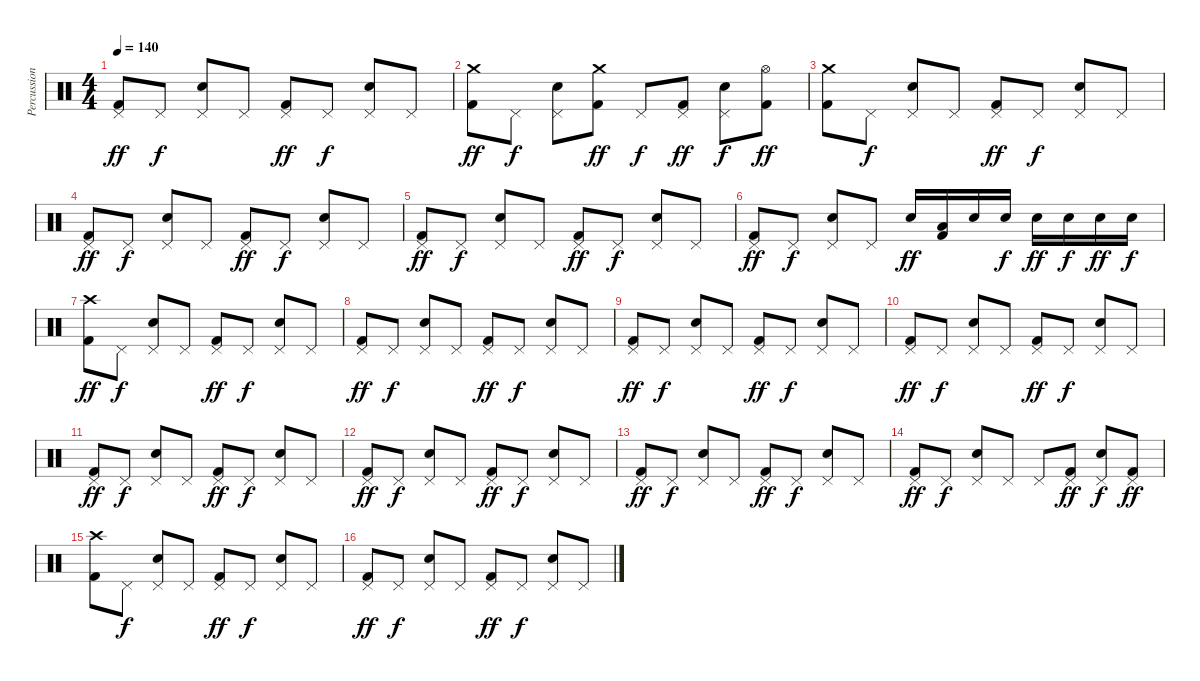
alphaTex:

\track ("Percussion" "Percussion") {instrument percussion}
\staff {score}
\articulation defaults
\ts (4 4)
\tempo 140
\clef neutral
\ks c
("Pedal Hi-Hat (hit)" "Kick (hit) 2").8{dy ff} "Pedal Hi-Hat (hit)".8{dy f} ("Pedal Hi-Hat (hit)" "Snare (hit) 2").8 "Pedal Hi-Hat (hit)".8 ("Pedal Hi-Hat (hit)" "Kick (hit) 2").8{dy ff} "Pedal Hi-Hat (hit)".8{dy f} ("Pedal Hi-Hat (hit)" "Snare (hit) 2").8 "Pedal Hi-Hat (hit)".8 |
("Crash medium (hit)" "Kick (hit) 2").8{dy ff} "Pedal Hi-Hat (hit)".8{dy f} ("Pedal Hi-Hat (hit)" "Snare (hit) 2").8 ("Crash medium (hit)" "Kick (hit) 2").8{dy ff} "Pedal Hi-Hat (hit)".8{dy f} ("Pedal Hi-Hat (hit)" "Kick (hit) 2").8{dy ff} ("Pedal Hi-Hat (hit)" "Snare (hit) 2").8{dy f} ("Hi-Hat (open)" "Kick (hit) 2").8{dy ff} |
("Crash medium (hit)" "Kick (hit) 2").8 "Pedal Hi-Hat (hit)".8{dy f} ("Pedal Hi-Hat (hit)" "Snare (hit) 2").8 "Pedal Hi-Hat (hit)".8 ("Pedal Hi-Hat (hit)" "Kick (hit) 2").8{dy ff} "Pedal Hi-Hat (hit)".8{dy f} ("Pedal Hi-Hat (hit)" "Snare (hit) 2").8 "Pedal Hi-Hat (hit)".8 |
("Pedal Hi-Hat (hit)" "Kick (hit) 2").8{dy ff} "Pedal Hi-Hat (hit)".8{dy f} ("Pedal Hi-Hat (hit)" "Snare (hit) 2").8 "Pedal Hi-Hat (hit)".8 ("Pedal Hi-Hat (hit)" "Kick (hit) 2").8{dy ff} "Pedal Hi-Hat (hit)".8{dy f} ("Pedal Hi-Hat (hit)" "Snare (hit) 2").8 "Pedal Hi-Hat (hit)".8 |
("Pedal Hi-Hat (hit)" "Kick (hit) 2").8{dy ff} "Pedal Hi-Hat (hit)".8{dy f} ("Pedal Hi-Hat (hit)" "Snare (hit) 2").8 "Pedal Hi-Hat (hit)".8 ("Pedal Hi-Hat (hit)" "Kick (hit) 2").8{dy ff} "Pedal Hi-Hat (hit)".8{dy f} ("Pedal Hi-Hat (hit)" "Snare (hit) 2").8 "Pedal Hi-Hat (hit)".8 |
("Pedal Hi-Hat (hit)" "Kick (hit) 2").8{dy ff} "Pedal Hi-Hat (hit)".8{dy f} ("Pedal Hi-Hat (hit)" "Snare (hit) 2").8 "Pedal Hi-Hat (hit)".8 "Snare (hit) 2".16{dy ff} ("Low Tom (hit)" "Kick (hit) 2").16 "Snare (hit) 2".16 "Snare (hit) 2".16{dy f} "Snare (hit) 2".16{dy ff} "Snare (hit) 2".16{dy f} "Snare (hit) 2".16{dy ff} "Snare (hit) 2".16{dy f} |
("Crash high (hit)" "Kick (hit) 2").8{dy ff} "Pedal Hi-Hat (hit)".8{dy f} ("Pedal Hi-Hat (hit)" "Snare (hit) 2").8 "Pedal Hi-Hat (hit)".8 ("Pedal Hi-Hat (hit)" "Kick (hit) 2").8{dy ff} "Pedal Hi-Hat (hit)".8{dy f} ("Pedal Hi-Hat (hit)" "Snare (hit) 2").8 "Pedal Hi-Hat (hit)".8 |
("Pedal Hi-Hat (hit)" "Kick (hit) 2").8{dy ff} "Pedal Hi-Hat (hit)".8{dy f} ("Pedal Hi-Hat (hit)" "Snare (hit) 2").8 "Pedal Hi-Hat (hit)".8 ("Pedal Hi-Hat (hit)" "Kick (hit) 2").8{dy ff} "Pedal Hi-Hat (hit)".8{dy f} ("Pedal Hi-Hat (hit)" "Snare (hit) 2").8 "Pedal Hi-Hat (hit)".8 |
("Pedal Hi-Hat (hit)" "Kick (hit) 2").8{dy ff} "Pedal Hi-Hat (hit)".8{dy f} ("Pedal Hi-Hat (hit)" "Snare (hit) 2").8 "Pedal Hi-Hat (hit)".8 ("Pedal Hi-Hat (hit)" "Kick (hit) 2").8{dy ff} "Pedal Hi-Hat (hit)".8{dy f} ("Pedal Hi-Hat (hit)" "Snare (hit) 2").8 "Pedal Hi-Hat (hit)".8 |
("Pedal Hi-Hat (hit)" "Kick (hit) 2").8{dy ff} "Pedal Hi-Hat (hit)".8{dy f} ("Pedal Hi-Hat (hit)" "Snare (hit) 2").8 "Pedal Hi-Hat (hit)".8 ("Pedal Hi-Hat (hit)" "Kick (hit) 2").8{dy ff} "Pedal Hi-Hat (hit)".8{dy f} ("Pedal Hi-Hat (hit)" "Snare (hit) 2").8 "Pedal Hi-Hat (hit)".8 |
("Pedal Hi-Hat (hit)" "Kick (hit) 2").8{dy ff} "Pedal Hi-Hat (hit)".8{dy f} ("Pedal Hi-Hat (hit)" "Snare (hit) 2").8 "Pedal Hi-Hat (hit)".8 ("Pedal Hi-Hat (hit)" "Kick (hit) 2").8{dy ff} "Pedal Hi-Hat (hit)".8{dy f} ("Pedal Hi-Hat (hit)" "Snare (hit) 2").8 "Pedal Hi-Hat (hit)".8 |
("Pedal Hi-Hat (hit)" "Kick (hit) 2").8{dy ff} "Pedal Hi-Hat (hit)".8{dy f} ("Pedal Hi-Hat (hit)" "Snare (hit) 2").8 "Pedal Hi-Hat (hit)".8 ("Pedal Hi-Hat (hit)" "Kick (hit) 2").8{dy ff} "Pedal Hi-Hat (hit)".8{dy f} ("Pedal Hi-Hat (hit)" "Snare (hit) 2").8 "Pedal Hi-Hat (hit)".8 |
("Pedal Hi-Hat (hit)" "Kick (hit) 2").8{dy ff} "Pedal Hi-Hat (hit)".8{dy f} ("Pedal Hi-Hat (hit)" "Snare (hit) 2").8 "Pedal Hi-Hat (hit)".8 ("Pedal Hi-Hat (hit)" "Kick (hit) 2").8{dy ff} "Pedal Hi-Hat (hit)".8{dy f} ("Pedal Hi-Hat (hit)" "Snare (hit) 2").8 "Pedal Hi-Hat (hit)".8 |
("Pedal Hi-Hat (hit)" "Kick (hit) 2").8{dy ff} "Pedal Hi-Hat (hit)".8{dy f} ("Pedal Hi-Hat (hit)" "Snare (hit) 2").8 "Pedal Hi-Hat (hit)".8 "Pedal Hi-Hat (hit)".8 ("Pedal Hi-Hat (hit)" "Kick (hit) 2").8{dy ff} ("Pedal Hi-Hat (hit)" "Snare (hit) 2").8{dy f} ("Pedal Hi-Hat (hit)" "Kick (hit) 2").8{dy ff} |
("Crash high (hit)" "Kick (hit) 2").8 "Pedal Hi-Hat (hit)".8{dy f} ("Pedal Hi-Hat (hit)" "Snare (hit) 2").8 "Pedal Hi-Hat (hit)".8 ("Pedal Hi-Hat (hit)" "Kick (hit) 2").8{dy ff} "Pedal Hi-Hat (hit)".8{dy f} ("Pedal Hi-Hat (hit)" "Snare (hit) 2").8 "Pedal Hi-Hat (hit)".8 |
("Pedal Hi-Hat (hit)" "Kick (hit) 2").8{dy ff} "Pedal Hi-Hat (hit)".8{dy f} ("Pedal Hi-Hat (hit)" "Snare (hit) 2").8 "Pedal Hi-Hat (hit)".8 ("Pedal Hi-Hat (hit)" "Kick (hit) 2").8{dy ff} "Pedal Hi-Hat (hit)".8{dy f} ("Pedal Hi-Hat (hit)" "Snare (hit) 2").8 "Pedal Hi-Hat (hit)".8
